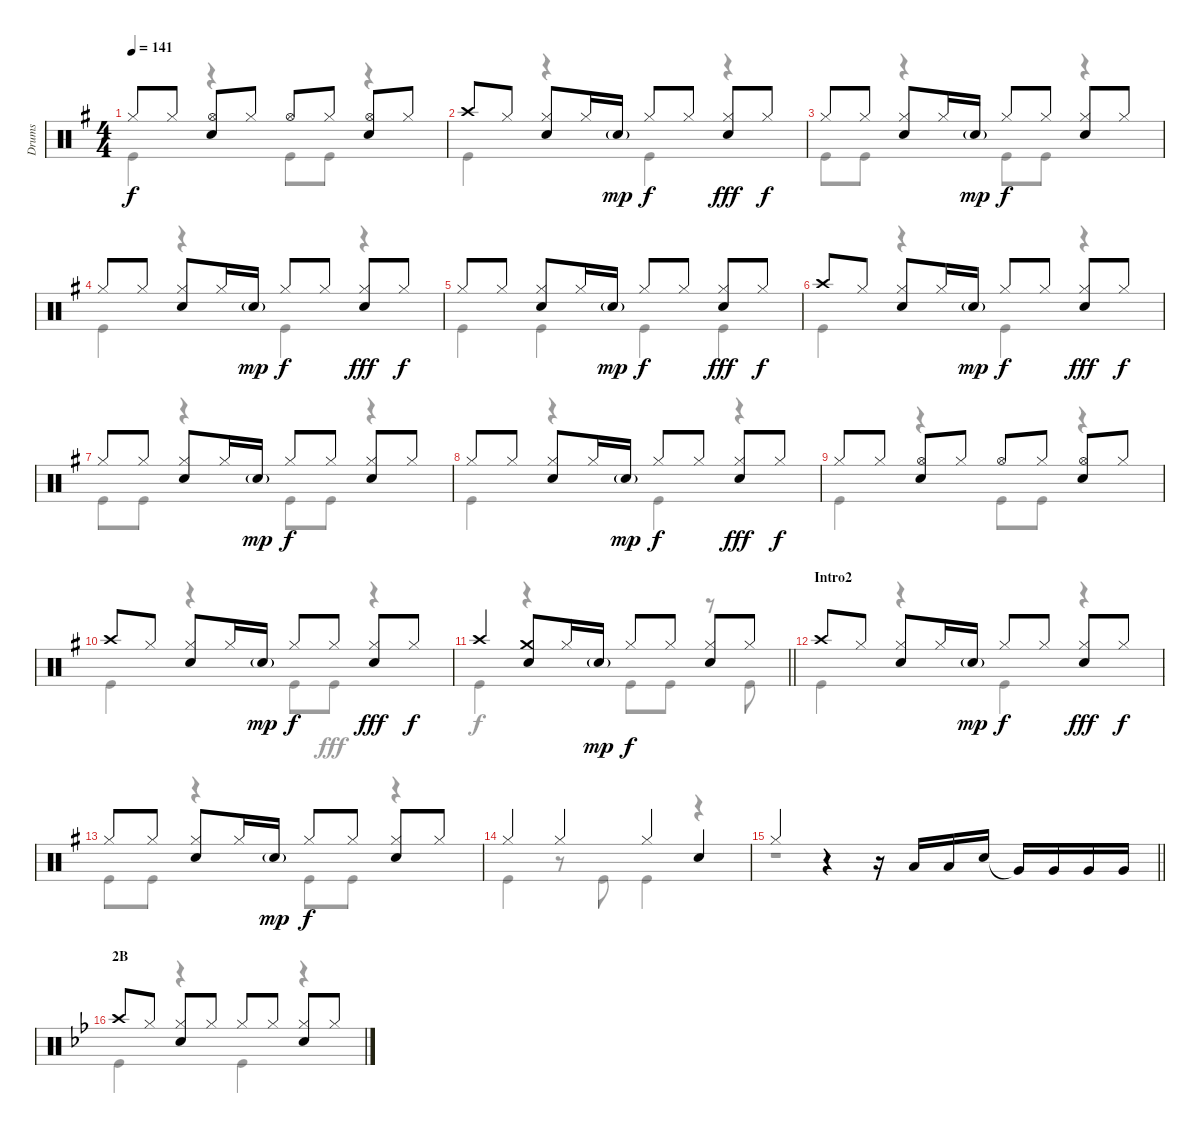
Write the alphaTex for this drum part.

\track ("Drums" "Drums") {instrument percussion}
\staff {score}
\articulation defaults
\voice
\ts (4 4)
\tempo 141
\clef neutral
\ks g "Hi-Hat (closed)".8{dy f} "Hi-Hat (closed)".8
("Hi-Hat (open)" "Snare (hit) 2").8 "Hi-Hat (closed)".8 "Hi-Hat (open)".8 "Hi-Hat (closed)".8 ("Hi-Hat (open)" "Snare (hit) 2").8 "Hi-Hat (closed)".8 |
"Crash high (hit)".8 "Hi-Hat (closed)".8 ("Hi-Hat (closed)" "Snare (hit) 2").8 "Hi-Hat (closed)".16 "Snare (hit) 2"{g}.16{dy mp} "Hi-Hat (closed)".8{dy f} "Hi-Hat (closed)".8 ("Hi-Hat (closed)" "Snare (hit) 2").8{dy fff} "Hi-Hat (closed)".8{dy f} |
"Hi-Hat (closed)".8 "Hi-Hat (closed)".8 ("Hi-Hat (closed)" "Snare (hit) 2").8 "Hi-Hat (closed)".16 "Snare (hit) 2"{g}.16{dy mp} "Hi-Hat (closed)".8{dy f} "Hi-Hat (closed)".8 ("Hi-Hat (closed)" "Snare (hit) 2").8 "Hi-Hat (closed)".8 |
"Hi-Hat (closed)".8 "Hi-Hat (closed)".8 ("Hi-Hat (closed)" "Snare (hit) 2").8 "Hi-Hat (closed)".16 "Snare (hit) 2"{g}.16{dy mp} "Hi-Hat (closed)".8{dy f} "Hi-Hat (closed)".8 ("Hi-Hat (closed)" "Snare (hit) 2").8{dy fff} "Hi-Hat (closed)".8{dy f} |
"Hi-Hat (closed)".8 "Hi-Hat (closed)".8 ("Hi-Hat (closed)" "Snare (hit) 2").8 "Hi-Hat (closed)".16 "Snare (hit) 2"{g}.16{dy mp} "Hi-Hat (closed)".8{dy f} "Hi-Hat (closed)".8 ("Hi-Hat (closed)" "Snare (hit) 2").8{dy fff} "Hi-Hat (closed)".8{dy f} |
"Crash high (hit)".8 "Hi-Hat (closed)".8 ("Hi-Hat (closed)" "Snare (hit) 2").8 "Hi-Hat (closed)".16 "Snare (hit) 2"{g}.16{dy mp} "Hi-Hat (closed)".8{dy f} "Hi-Hat (closed)".8 ("Hi-Hat (closed)" "Snare (hit) 2").8{dy fff} "Hi-Hat (closed)".8{dy f} |
"Hi-Hat (closed)".8 "Hi-Hat (closed)".8 ("Hi-Hat (closed)" "Snare (hit) 2").8 "Hi-Hat (closed)".16 "Snare (hit) 2"{g}.16{dy mp} "Hi-Hat (closed)".8{dy f} "Hi-Hat (closed)".8 ("Hi-Hat (closed)" "Snare (hit) 2").8 "Hi-Hat (closed)".8 |
"Hi-Hat (closed)".8 "Hi-Hat (closed)".8 ("Hi-Hat (closed)" "Snare (hit) 2").8 "Hi-Hat (closed)".16 "Snare (hit) 2"{g}.16{dy mp} "Hi-Hat (closed)".8{dy f} "Hi-Hat (closed)".8 ("Hi-Hat (closed)" "Snare (hit) 2").8{dy fff} "Hi-Hat (closed)".8{dy f} |
"Hi-Hat (closed)".8 "Hi-Hat (closed)".8 ("Hi-Hat (open)" "Snare (hit) 2").8 "Hi-Hat (closed)".8 "Hi-Hat (open)".8 "Hi-Hat (closed)".8 ("Hi-Hat (open)" "Snare (hit) 2").8 "Hi-Hat (closed)".8 |
"Crash high (hit)".8 "Hi-Hat (closed)".8 ("Hi-Hat (closed)" "Snare (hit) 2").8 "Hi-Hat (closed)".16 "Snare (hit) 2"{g}.16{dy mp} "Hi-Hat (closed)".8{dy f} "Hi-Hat (closed)".8 ("Hi-Hat (closed)" "Snare (hit) 2").8{dy fff} "Hi-Hat (closed)".8{dy f} |
\barLineRight lightlight "Crash high (hit)".4
("Crash medium (hit)" "Snare (hit) 2").8 "Hi-Hat (closed)".16 "Snare (hit) 2"{g}.16{dy mp} "Hi-Hat (closed)".8{dy f} "Hi-Hat (closed)".8 ("Hi-Hat (closed)" "Snare (hit) 2").8 "Hi-Hat (closed)".8 |
\section ("" "Intro2")
"Crash high (hit)".8 "Hi-Hat (closed)".8 ("Hi-Hat (closed)" "Snare (hit) 2").8 "Hi-Hat (closed)".16 "Snare (hit) 2"{g}.16{dy mp} "Hi-Hat (closed)".8{dy f} "Hi-Hat (closed)".8 ("Hi-Hat (closed)" "Snare (hit) 2").8{dy fff} "Hi-Hat (closed)".8{dy f} |
"Hi-Hat (closed)".8 "Hi-Hat (closed)".8 ("Hi-Hat (closed)" "Snare (hit) 2").8 "Hi-Hat (closed)".16 "Snare (hit) 2"{g}.16{dy mp} "Hi-Hat (closed)".8{dy f} "Hi-Hat (closed)".8 ("Hi-Hat (closed)" "Snare (hit) 2").8 "Hi-Hat (closed)".8 |
"Hi-Hat (closed)".4 "Hi-Hat (closed)".4 "Hi-Hat (closed)".4 "Snare (hit) 2".4 |
\barLineRight lightlight "Hi-Hat (closed)".4
r.4 r.16 "Low Tom (hit)".16 "Low Tom (hit)".16 "Snare (hit) 2".16 "Very Low Tom (hit)"{t}.16 "Very Low Tom (hit)".16 "Very Low Tom (hit)".16 "Very Low Tom (hit)".16 |
\section ("" "2B")
\ks bb "Crash high (hit)".8 "Hi-Hat (closed)".8
("Hi-Hat (closed)" "Snare (hit) 2").8 "Hi-Hat (closed)".8 "Hi-Hat (closed)".8 "Hi-Hat (closed)".8 ("Hi-Hat (closed)" "Snare (hit) 2").8 "Hi-Hat (closed)".8
\voice
\clef neutral
\ottava regular
\simile none
\ks g "Kick (hit)".4{dy f}
r.4 "Kick (hit)".8 "Kick (hit)".8 r.4 |
"Kick (hit)".4 r.4 "Kick (hit)".4 r.4 |
"Kick (hit)".8 "Kick (hit)".8 r.4 "Kick (hit)".8 "Kick (hit)".8 r.4 |
"Kick (hit)".4 r.4 "Kick (hit)".4 r.4 |
"Kick (hit)".4 "Kick (hit)".4 "Kick (hit)".4 "Kick (hit)".4 |
"Kick (hit)".4 r.4 "Kick (hit)".4 r.4 |
"Kick (hit)".8 "Kick (hit)".8 r.4 "Kick (hit)".8 "Kick (hit)".8 r.4 |
"Kick (hit)".4 r.4 "Kick (hit)".4 r.4 |
"Kick (hit)".4 r.4 "Kick (hit)".8 "Kick (hit)".8 r.4 |
"Kick (hit)".4 r.4 "Kick (hit)".8 "Kick (hit)".8{dy fff} r.4 |
\barLineRight lightlight "Kick (hit)".4{dy f}
r.4 "Kick (hit)".8 "Kick (hit)".8 r.8 "Kick (hit)".8 |
"Kick (hit)".4 r.4 "Kick (hit)".4 r.4 |
"Kick (hit)".8 "Kick (hit)".8 r.4 "Kick (hit)".8 "Kick (hit)".8 r.4 |
"Kick (hit)".4 r.8 "Kick (hit)".8 "Kick (hit)".4 r.4 |
\barLineRight lightlight
r.1 |
\ks bb "Kick (hit)".4
r.4 "Kick (hit)".4 r.4
